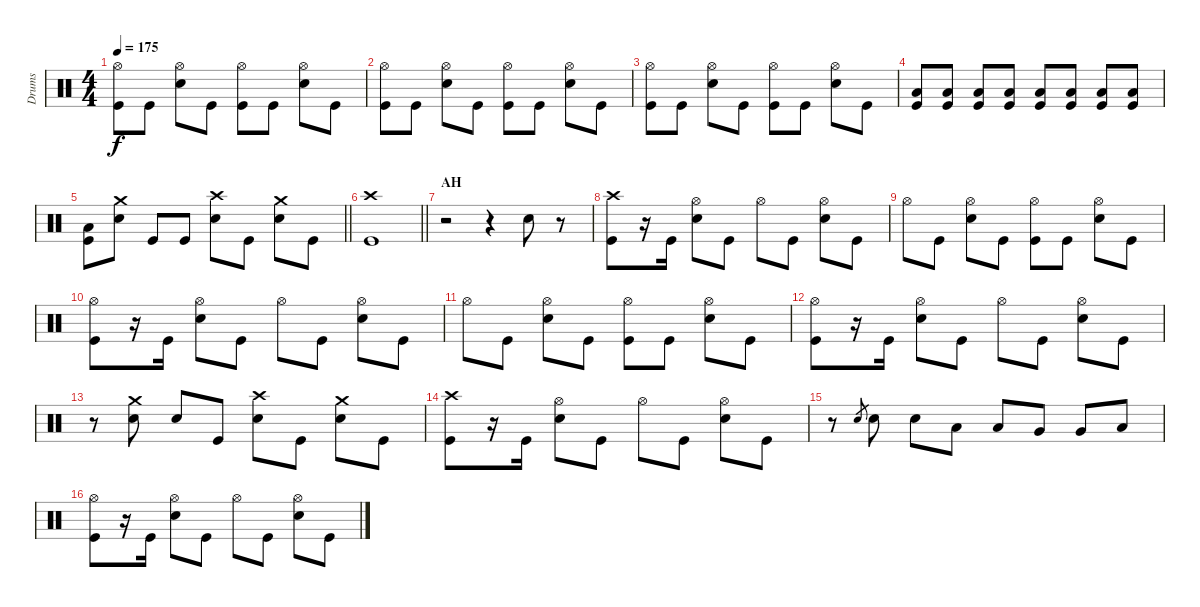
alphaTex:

\track ("Drums" "Drums") {instrument percussion}
\staff {score}
\articulation defaults
\ts (4 4)
\tempo 175
\clef neutral
\ks c
("Hi-Hat (open)" "Kick (hit)").8{dy f} "Kick (hit)".8 ("Hi-Hat (open)" "Snare (hit) 2").8 "Kick (hit)".8 ("Hi-Hat (open)" "Kick (hit)").8 "Kick (hit)".8 ("Hi-Hat (open)" "Snare (hit) 2").8 "Kick (hit)".8 |
("Hi-Hat (open)" "Kick (hit)").8 "Kick (hit)".8 ("Hi-Hat (open)" "Snare (hit) 2").8 "Kick (hit)".8 ("Hi-Hat (open)" "Kick (hit)").8 "Kick (hit)".8 ("Hi-Hat (open)" "Snare (hit) 2").8 "Kick (hit)".8 |
("Hi-Hat (open)" "Kick (hit)").8 "Kick (hit)".8 ("Hi-Hat (open)" "Snare (hit) 2").8 "Kick (hit)".8 ("Hi-Hat (open)" "Kick (hit)").8 "Kick (hit)".8 ("Hi-Hat (open)" "Snare (hit) 2").8 "Kick (hit)".8 |
("Low Floor Tom (hit)" "Kick (hit)").8 ("Low Floor Tom (hit)" "Kick (hit)").8 ("Low Floor Tom (hit)" "Kick (hit)").8 ("Low Floor Tom (hit)" "Kick (hit)").8 ("Low Floor Tom (hit)" "Kick (hit)").8 ("Low Floor Tom (hit)" "Kick (hit)").8 ("Low Floor Tom (hit)" "Kick (hit)").8 ("Low Floor Tom (hit)" "Kick (hit)").8 |
\barLineRight lightlight
("Low Floor Tom (hit)" "Kick (hit)").8 ("Crash medium (hit)" "Snare (hit) 2").8 "Kick (hit)".8 "Kick (hit)".8 ("Crash high (hit)" "Snare (hit) 2").8 "Kick (hit)".8 ("Crash medium (hit)" "Snare (hit) 2").8 "Kick (hit)".8 |
\barLineRight lightlight
("Crash high (hit)" "Kick (hit)").1 |
\section ("" "AH")
r.2 r.4 "Snare (hit) 2".8 r.8 |
("Crash high (hit)" "Kick (hit)").8 r.16 "Kick (hit)".16 ("Hi-Hat (open)" "Snare (hit) 2").8 "Kick (hit)".8 "Hi-Hat (open)".8 "Kick (hit)".8 ("Hi-Hat (open)" "Snare (hit) 2").8 "Kick (hit)".8 |
"Hi-Hat (open)".8 "Kick (hit)".8 ("Hi-Hat (open)" "Snare (hit) 2").8 "Kick (hit)".8 ("Hi-Hat (open)" "Kick (hit)").8 "Kick (hit)".8 ("Hi-Hat (open)" "Snare (hit) 2").8 "Kick (hit)".8 |
("Hi-Hat (open)" "Kick (hit)").8 r.16 "Kick (hit)".16 ("Hi-Hat (open)" "Snare (hit) 2").8 "Kick (hit)".8 "Hi-Hat (open)".8 "Kick (hit)".8 ("Hi-Hat (open)" "Snare (hit) 2").8 "Kick (hit)".8 |
"Hi-Hat (open)".8 "Kick (hit)".8 ("Hi-Hat (open)" "Snare (hit) 2").8 "Kick (hit)".8 ("Hi-Hat (open)" "Kick (hit)").8 "Kick (hit)".8 ("Hi-Hat (open)" "Snare (hit) 2").8 "Kick (hit)".8 |
("Hi-Hat (open)" "Kick (hit)").8 r.16 "Kick (hit)".16 ("Hi-Hat (open)" "Snare (hit) 2").8 "Kick (hit)".8 "Hi-Hat (open)".8 "Kick (hit)".8 ("Hi-Hat (open)" "Snare (hit) 2").8 "Kick (hit)".8 |
r.8 ("Crash medium (hit)" "Snare (hit) 2").8 "Snare (hit) 2".8 "Kick (hit)".8 ("Crash high (hit)" "Snare (hit) 2").8 "Kick (hit)".8 ("Crash medium (hit)" "Snare (hit) 2").8 "Kick (hit)".8 |
("Crash high (hit)" "Kick (hit)").8 r.16 "Kick (hit)".16 ("Hi-Hat (open)" "Snare (hit) 2").8 "Kick (hit)".8 "Hi-Hat (open)".8 "Kick (hit)".8 ("Hi-Hat (open)" "Snare (hit) 2").8 "Kick (hit)".8 |
r.8 "Snare (hit) 2".8{gr} "Snare (hit) 2".8 "Snare (hit) 2".8 "Low Tom (hit)".8 "Low Tom (hit)".8 "Very Low Tom (hit)".8 "Very Low Tom (hit)".8 "Low Floor Tom (hit)".8 |
("Hi-Hat (open)" "Kick (hit)").8 r.16 "Kick (hit)".16 ("Hi-Hat (open)" "Snare (hit) 2").8 "Kick (hit)".8 "Hi-Hat (open)".8 "Kick (hit)".8 ("Hi-Hat (open)" "Snare (hit) 2").8 "Kick (hit)".8
